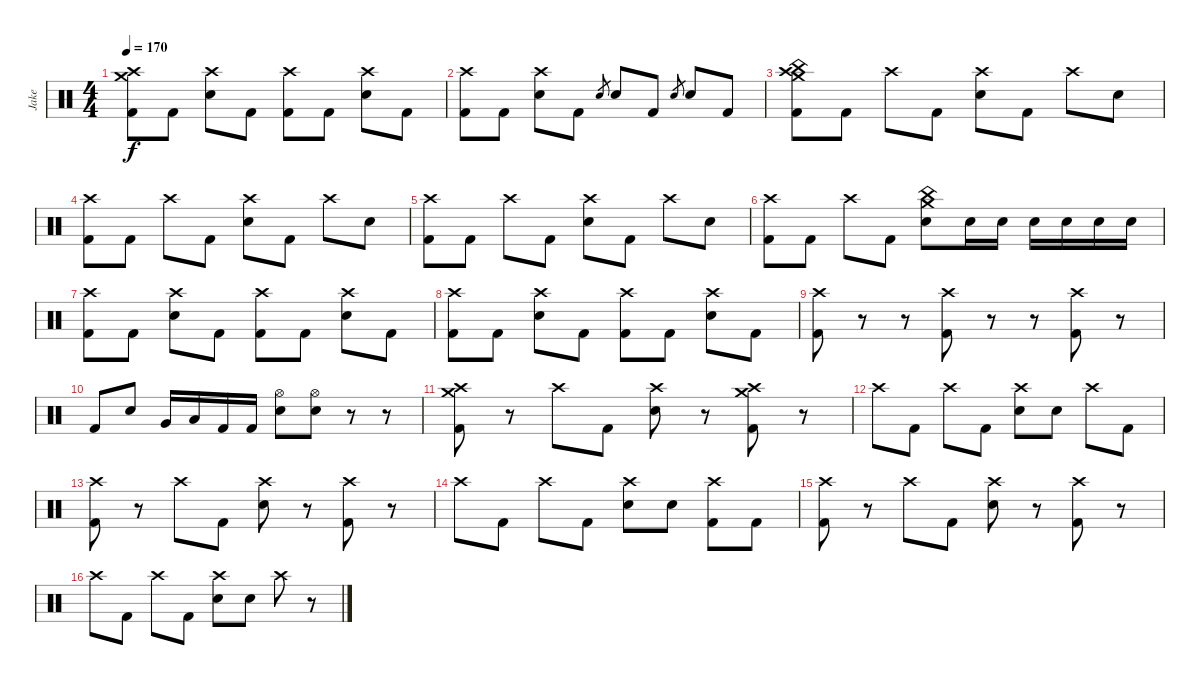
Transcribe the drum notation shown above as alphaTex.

\track ("Jake" "Jake") {instrument percussion}
\staff {score}
\articulation defaults
\ts (4 4)
\tempo 170
\clef neutral
\ks c
("Crash high (hit)" "Crash medium (hit)" "Kick (hit) 2").8{dy f} "Kick (hit) 2".8 ("Crash high (hit)" "Electric Snare (hit)").8 "Kick (hit) 2".8 ("Crash high (hit)" "Kick (hit) 2").8 "Kick (hit) 2".8 ("Crash high (hit)" "Electric Snare (hit)").8 "Kick (hit) 2".8 |
("Crash high (hit)" "Kick (hit) 2").8 "Kick (hit) 2".8 ("Crash high (hit)" "Electric Snare (hit)").8 "Kick (hit) 2".8 "Electric Snare (hit)".8{gr} "Electric Snare (hit)".8 "Kick (hit) 2".8 "Electric Snare (hit)".8{gr} "Electric Snare (hit)".8 "Kick (hit) 2".8 |
("Crash high (hit)" "Crash medium (hit)" "China (hit)" "Kick (hit) 2").8 "Kick (hit) 2".8 "Crash high (hit)".8 "Kick (hit) 2".8 ("Crash high (hit)" "Electric Snare (hit)").8 "Kick (hit) 2".8 "Crash high (hit)".8 "Electric Snare (hit)".8 |
("Crash high (hit)" "Kick (hit) 2").8 "Kick (hit) 2".8 "Crash high (hit)".8 "Kick (hit) 2".8 ("Crash high (hit)" "Electric Snare (hit)").8 "Kick (hit) 2".8 "Crash high (hit)".8 "Electric Snare (hit)".8 |
("Crash high (hit)" "Kick (hit) 2").8 "Kick (hit) 2".8 "Crash high (hit)".8 "Kick (hit) 2".8 ("Crash high (hit)" "Electric Snare (hit)").8 "Kick (hit) 2".8 "Crash high (hit)".8 "Electric Snare (hit)".8 |
("Crash high (hit)" "Kick (hit) 2").8 "Kick (hit) 2".8 "Crash high (hit)".8 "Kick (hit) 2".8 ("Crash medium (hit)" "China (hit)" "Electric Snare (hit)").8 "Electric Snare (hit)".16 "Electric Snare (hit)".16 "Electric Snare (hit)".16 "Electric Snare (hit)".16 "Electric Snare (hit)".16 "Electric Snare (hit)".16 |
("Crash high (hit)" "Kick (hit) 2").8 "Kick (hit) 2".8 ("Crash high (hit)" "Electric Snare (hit)").8 "Kick (hit) 2".8 ("Crash high (hit)" "Kick (hit) 2").8 "Kick (hit) 2".8 ("Crash high (hit)" "Electric Snare (hit)").8 "Kick (hit) 2".8 |
("Crash high (hit)" "Kick (hit) 2").8 "Kick (hit) 2".8 ("Crash high (hit)" "Electric Snare (hit)").8 "Kick (hit) 2".8 ("Crash high (hit)" "Kick (hit) 2").8 "Kick (hit) 2".8 ("Crash high (hit)" "Electric Snare (hit)").8 "Kick (hit) 2".8 |
("Crash high (hit)" "Kick (hit) 2").8 r.8 r.8 ("Crash high (hit)" "Kick (hit) 2").8 r.8 r.8 ("Crash high (hit)" "Kick (hit) 2").8 r.8 |
"Kick (hit) 2".8 "Electric Snare (hit)".8 "Very Low Tom (hit)".16 "Low Floor Tom (hit)".16 "Kick (hit) 2".16 "Kick (hit) 2".16 ("Hi-Hat (open)" "Electric Snare (hit)").8 ("Hi-Hat (open)" "Electric Snare (hit)").8 r.8 r.8 |
("Crash high (hit)" "Crash medium (hit)" "Kick (hit) 2").8 r.8 "Crash high (hit)".8 "Kick (hit) 2".8 ("Crash high (hit)" "Electric Snare (hit)").8 r.8 ("Crash high (hit)" "Crash medium (hit)" "Kick (hit) 2").8 r.8 |
"Crash high (hit)".8 "Kick (hit) 2".8 "Crash high (hit)".8 "Kick (hit) 2".8 ("Crash high (hit)" "Electric Snare (hit)").8 "Electric Snare (hit)".8 "Crash high (hit)".8 "Kick (hit) 2".8 |
("Crash high (hit)" "Kick (hit) 2").8 r.8 "Crash high (hit)".8 "Kick (hit) 2".8 ("Crash high (hit)" "Electric Snare (hit)").8 r.8 ("Crash high (hit)" "Kick (hit) 2").8 r.8 |
"Crash high (hit)".8 "Kick (hit) 2".8 "Crash high (hit)".8 "Kick (hit) 2".8 ("Crash high (hit)" "Electric Snare (hit)").8 "Electric Snare (hit)".8 ("Crash high (hit)" "Kick (hit) 2").8 "Kick (hit) 2".8 |
("Crash high (hit)" "Kick (hit) 2").8 r.8 "Crash high (hit)".8 "Kick (hit) 2".8 ("Crash high (hit)" "Electric Snare (hit)").8 r.8 ("Crash high (hit)" "Kick (hit) 2").8 r.8 |
"Crash high (hit)".8 "Kick (hit) 2".8 "Crash high (hit)".8 "Kick (hit) 2".8 ("Crash high (hit)" "Electric Snare (hit)").8 "Electric Snare (hit)".8 "Crash high (hit)".8 r.8
